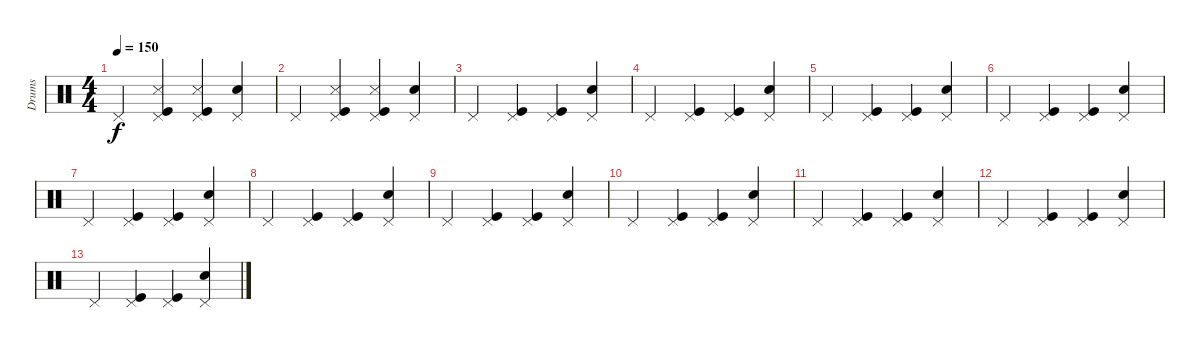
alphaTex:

\track ("Drums" "Drums") {instrument percussion}
\staff {score}
\articulation defaults
\ts (4 4)
\tempo 150
\clef neutral
\ks c "Pedal Hi-Hat (hit)".4{dy f}
("Pedal Hi-Hat (hit)" "Snare (side stick) 3" "Kick (hit)").4 ("Pedal Hi-Hat (hit)" "Snare (side stick) 3" "Kick (hit)").4 ("Pedal Hi-Hat (hit)" "Snare (hit) 2").4 |
"Pedal Hi-Hat (hit)".4 ("Pedal Hi-Hat (hit)" "Snare (side stick) 3" "Kick (hit)").4 ("Pedal Hi-Hat (hit)" "Snare (side stick) 3" "Kick (hit)").4 ("Pedal Hi-Hat (hit)" "Snare (hit) 2").4 |
"Pedal Hi-Hat (hit)".4 ("Pedal Hi-Hat (hit)" "Kick (hit)").4 ("Pedal Hi-Hat (hit)" "Kick (hit)").4 ("Pedal Hi-Hat (hit)" "Snare (hit) 2").4 |
"Pedal Hi-Hat (hit)".4 ("Pedal Hi-Hat (hit)" "Kick (hit)").4 ("Pedal Hi-Hat (hit)" "Kick (hit)").4 ("Pedal Hi-Hat (hit)" "Snare (hit) 2").4 |
"Pedal Hi-Hat (hit)".4 ("Pedal Hi-Hat (hit)" "Kick (hit)").4 ("Pedal Hi-Hat (hit)" "Kick (hit)").4 ("Pedal Hi-Hat (hit)" "Snare (hit) 2").4 |
"Pedal Hi-Hat (hit)".4 ("Pedal Hi-Hat (hit)" "Kick (hit)").4 ("Pedal Hi-Hat (hit)" "Kick (hit)").4 ("Pedal Hi-Hat (hit)" "Snare (hit) 2").4 |
"Pedal Hi-Hat (hit)".4 ("Pedal Hi-Hat (hit)" "Kick (hit)").4 ("Pedal Hi-Hat (hit)" "Kick (hit)").4 ("Pedal Hi-Hat (hit)" "Snare (hit) 2").4 |
"Pedal Hi-Hat (hit)".4 ("Pedal Hi-Hat (hit)" "Kick (hit)").4 ("Pedal Hi-Hat (hit)" "Kick (hit)").4 ("Pedal Hi-Hat (hit)" "Snare (hit) 2").4 |
"Pedal Hi-Hat (hit)".4 ("Pedal Hi-Hat (hit)" "Kick (hit)").4 ("Pedal Hi-Hat (hit)" "Kick (hit)").4 ("Pedal Hi-Hat (hit)" "Snare (hit) 2").4 |
"Pedal Hi-Hat (hit)".4 ("Pedal Hi-Hat (hit)" "Kick (hit)").4 ("Pedal Hi-Hat (hit)" "Kick (hit)").4 ("Pedal Hi-Hat (hit)" "Snare (hit) 2").4 |
"Pedal Hi-Hat (hit)".4 ("Pedal Hi-Hat (hit)" "Kick (hit)").4 ("Pedal Hi-Hat (hit)" "Kick (hit)").4 ("Pedal Hi-Hat (hit)" "Snare (hit) 2").4 |
"Pedal Hi-Hat (hit)".4 ("Pedal Hi-Hat (hit)" "Kick (hit)").4 ("Pedal Hi-Hat (hit)" "Kick (hit)").4 ("Pedal Hi-Hat (hit)" "Snare (hit) 2").4 |
"Pedal Hi-Hat (hit)".4 ("Pedal Hi-Hat (hit)" "Kick (hit)").4 ("Pedal Hi-Hat (hit)" "Kick (hit)").4 ("Pedal Hi-Hat (hit)" "Snare (hit) 2").4
